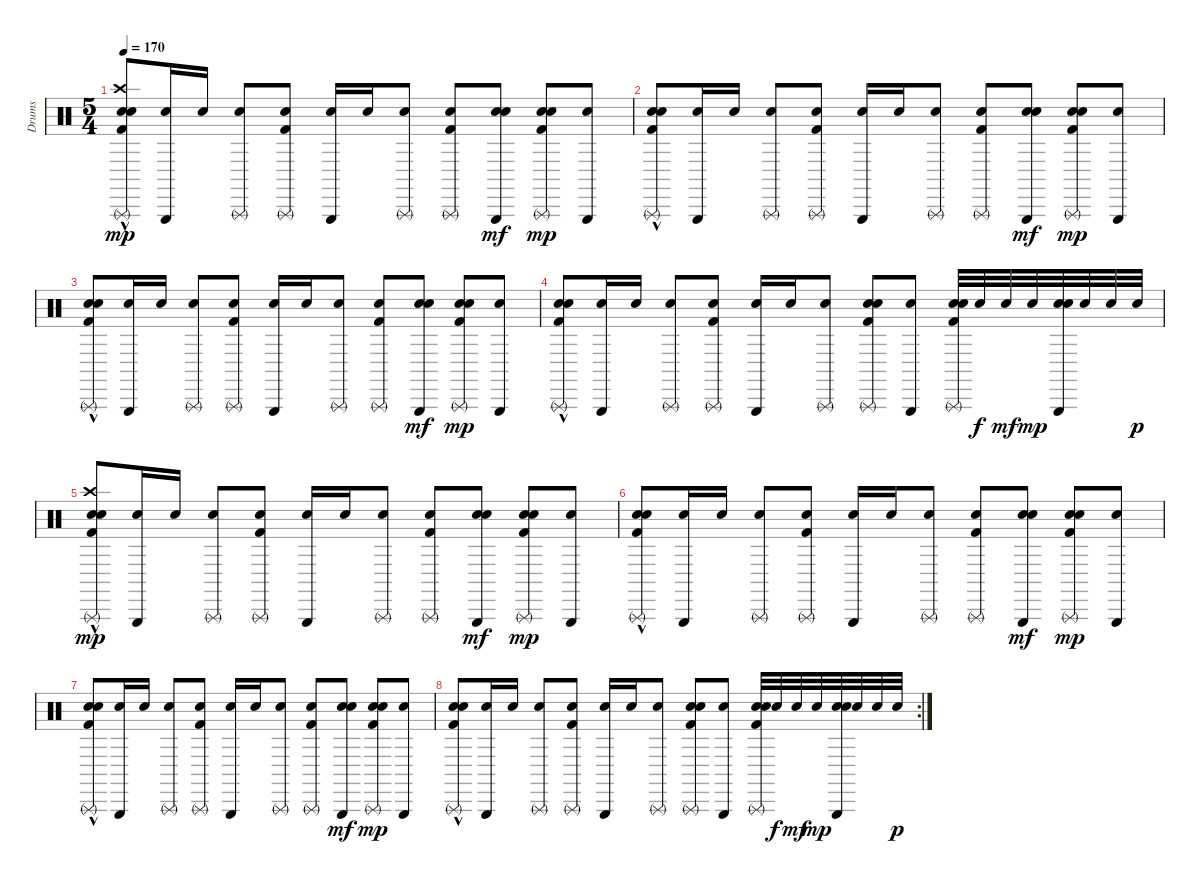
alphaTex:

\track ("Drums" "Drums") {instrument percussion}
\staff {score}
\articulation defaults
\ts (5 4)
\tempo 170
\clef neutral
\ks c
("Metronome (bell)" "Triangle (rnute)" "Electric Snare (hit)" "Crash high (hit)" "Kick (hit) 2"{hac}).8{dy mp} ("Triangle (hit)" "Metronome (bell)").16 "Metronome (bell)".16 ("Triangle (rnute)" "Metronome (bell)").8 ("Metronome (bell)" "Triangle (rnute)" "Kick (hit) 2").8 ("Triangle (hit)" "Metronome (bell)").16 "Metronome (bell)".16 ("Triangle (rnute)" "Metronome (bell)").8 ("Metronome (bell)" "Triangle (rnute)" "Kick (hit) 2").8 ("Triangle (hit)" "Metronome (bell)" "Electric Snare (hit)").8{dy mf} ("Metronome (bell)" "Triangle (rnute)" "Electric Snare (hit)" "Kick (hit) 2").8{dy mp} ("Triangle (hit)" "Metronome (bell)").8 |
("Metronome (bell)" "Triangle (rnute)" "Electric Snare (hit)" "Kick (hit) 2"{hac}).8 ("Triangle (hit)" "Metronome (bell)").16 "Metronome (bell)".16 ("Triangle (rnute)" "Metronome (bell)").8 ("Metronome (bell)" "Triangle (rnute)" "Kick (hit) 2").8 ("Triangle (hit)" "Metronome (bell)").16 "Metronome (bell)".16 ("Triangle (rnute)" "Metronome (bell)").8 ("Metronome (bell)" "Triangle (rnute)" "Kick (hit) 2").8 ("Triangle (hit)" "Metronome (bell)" "Electric Snare (hit)").8{dy mf} ("Metronome (bell)" "Triangle (rnute)" "Electric Snare (hit)" "Kick (hit) 2").8{dy mp} ("Triangle (hit)" "Metronome (bell)").8 |
("Metronome (bell)" "Triangle (rnute)" "Electric Snare (hit)" "Kick (hit) 2"{hac}).8 ("Triangle (hit)" "Metronome (bell)").16 "Metronome (bell)".16 ("Triangle (rnute)" "Metronome (bell)").8 ("Metronome (bell)" "Triangle (rnute)" "Kick (hit) 2").8 ("Triangle (hit)" "Metronome (bell)").16 "Metronome (bell)".16 ("Triangle (rnute)" "Metronome (bell)").8 ("Metronome (bell)" "Triangle (rnute)" "Kick (hit) 2").8 ("Triangle (hit)" "Metronome (bell)" "Electric Snare (hit)").8{dy mf} ("Metronome (bell)" "Triangle (rnute)" "Electric Snare (hit)" "Kick (hit) 2").8{dy mp} ("Triangle (hit)" "Metronome (bell)").8 |
("Metronome (bell)" "Triangle (rnute)" "Electric Snare (hit)" "Kick (hit) 2"{hac}).8 ("Triangle (hit)" "Metronome (bell)").16 "Metronome (bell)".16 ("Triangle (rnute)" "Metronome (bell)").8 ("Metronome (bell)" "Triangle (rnute)" "Kick (hit) 2").8 ("Triangle (hit)" "Metronome (bell)").16 "Metronome (bell)".16 ("Triangle (rnute)" "Metronome (bell)").8 ("Metronome (bell)" "Triangle (rnute)" "Electric Snare (hit)" "Kick (hit) 2").8 ("Triangle (hit)" "Metronome (bell)").8 ("Metronome (bell)" "Triangle (rnute)" "Electric Snare (hit)" "Kick (hit) 2").32 "Electric Snare (hit)".32{dy f} "Electric Snare (hit)".32{dy mf} "Electric Snare (hit)".32{dy mp} ("Triangle (hit)" "Metronome (bell)" "Electric Snare (hit)").32 "Electric Snare (hit)".32 "Electric Snare (hit)".32 "Electric Snare (hit)".32{dy p} |
("Metronome (bell)" "Triangle (rnute)" "Electric Snare (hit)" "Crash high (hit)" "Kick (hit) 2"{hac}).8{dy mp} ("Triangle (hit)" "Metronome (bell)").16 "Metronome (bell)".16 ("Triangle (rnute)" "Metronome (bell)").8 ("Metronome (bell)" "Triangle (rnute)" "Kick (hit) 2").8 ("Triangle (hit)" "Metronome (bell)").16 "Metronome (bell)".16 ("Triangle (rnute)" "Metronome (bell)").8 ("Metronome (bell)" "Triangle (rnute)" "Kick (hit) 2").8 ("Triangle (hit)" "Metronome (bell)" "Electric Snare (hit)").8{dy mf} ("Metronome (bell)" "Triangle (rnute)" "Electric Snare (hit)" "Kick (hit) 2").8{dy mp} ("Triangle (hit)" "Metronome (bell)").8 |
("Metronome (bell)" "Triangle (rnute)" "Electric Snare (hit)" "Kick (hit) 2"{hac}).8 ("Triangle (hit)" "Metronome (bell)").16 "Metronome (bell)".16 ("Triangle (rnute)" "Metronome (bell)").8 ("Metronome (bell)" "Triangle (rnute)" "Kick (hit) 2").8 ("Triangle (hit)" "Metronome (bell)").16 "Metronome (bell)".16 ("Triangle (rnute)" "Metronome (bell)").8 ("Metronome (bell)" "Triangle (rnute)" "Kick (hit) 2").8 ("Triangle (hit)" "Metronome (bell)" "Electric Snare (hit)").8{dy mf} ("Metronome (bell)" "Triangle (rnute)" "Electric Snare (hit)" "Kick (hit) 2").8{dy mp} ("Triangle (hit)" "Metronome (bell)").8 |
("Metronome (bell)" "Triangle (rnute)" "Electric Snare (hit)" "Kick (hit) 2"{hac}).8 ("Triangle (hit)" "Metronome (bell)").16 "Metronome (bell)".16 ("Triangle (rnute)" "Metronome (bell)").8 ("Metronome (bell)" "Triangle (rnute)" "Kick (hit) 2").8 ("Triangle (hit)" "Metronome (bell)").16 "Metronome (bell)".16 ("Triangle (rnute)" "Metronome (bell)").8 ("Metronome (bell)" "Triangle (rnute)" "Kick (hit) 2").8 ("Triangle (hit)" "Metronome (bell)" "Electric Snare (hit)").8{dy mf} ("Metronome (bell)" "Triangle (rnute)" "Electric Snare (hit)" "Kick (hit) 2").8{dy mp} ("Triangle (hit)" "Metronome (bell)").8 |
\rc 2
("Metronome (bell)" "Triangle (rnute)" "Electric Snare (hit)" "Kick (hit) 2"{hac}).8 ("Triangle (hit)" "Metronome (bell)").16 "Metronome (bell)".16 ("Triangle (rnute)" "Metronome (bell)").8 ("Metronome (bell)" "Triangle (rnute)" "Kick (hit) 2").8 ("Triangle (hit)" "Metronome (bell)").16 "Metronome (bell)".16 ("Triangle (rnute)" "Metronome (bell)").8 ("Metronome (bell)" "Triangle (rnute)" "Electric Snare (hit)" "Kick (hit) 2").8 ("Triangle (hit)" "Metronome (bell)").8 ("Metronome (bell)" "Triangle (rnute)" "Electric Snare (hit)" "Kick (hit) 2").32 "Electric Snare (hit)".32{dy f} "Electric Snare (hit)".32{dy mf} "Electric Snare (hit)".32{dy mp} ("Triangle (hit)" "Metronome (bell)" "Electric Snare (hit)").32 "Electric Snare (hit)".32 "Electric Snare (hit)".32 "Electric Snare (hit)".32{dy p}
